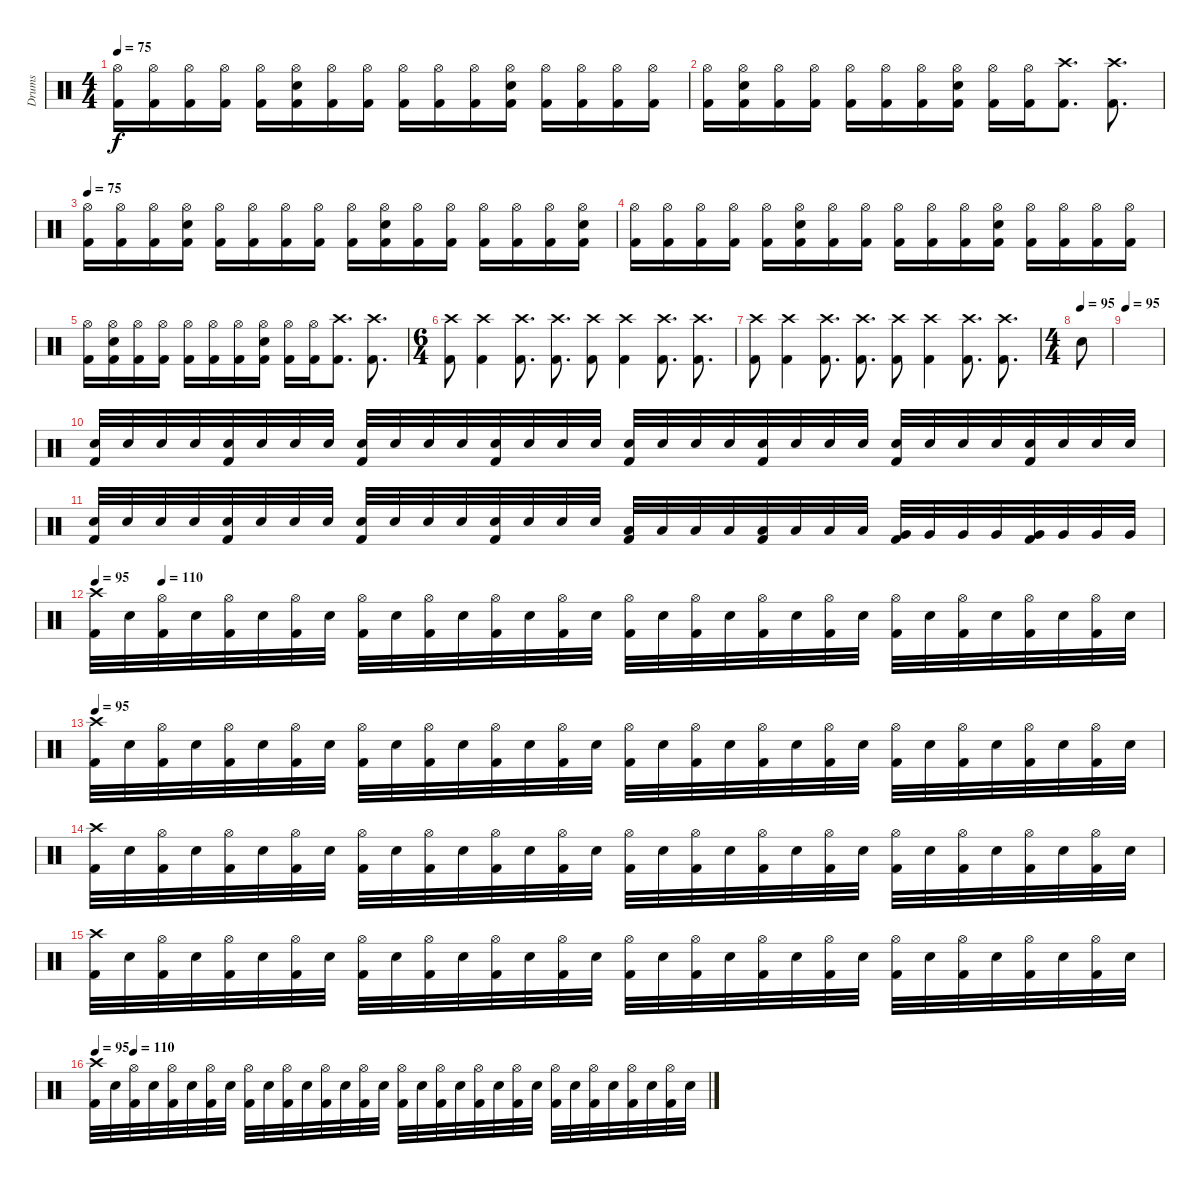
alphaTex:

\track ("Drums" "Drums") {instrument percussion}
\staff {score}
\articulation defaults
\ts (4 4)
\tempo 75
\clef neutral
\ks c
("Hi-Hat (open)" "Kick (hit) 2").16{dy f} ("Hi-Hat (open)" "Kick (hit) 2").16 ("Hi-Hat (open)" "Kick (hit) 2").16 ("Hi-Hat (open)" "Kick (hit) 2").16 ("Hi-Hat (open)" "Kick (hit) 2").16 ("Hi-Hat (open)" "Snare (hit) 2" "Kick (hit) 2").16 ("Hi-Hat (open)" "Kick (hit) 2").16 ("Hi-Hat (open)" "Kick (hit) 2").16 ("Hi-Hat (open)" "Kick (hit) 2").16 ("Hi-Hat (open)" "Kick (hit) 2").16 ("Hi-Hat (open)" "Kick (hit) 2").16 ("Hi-Hat (open)" "Snare (hit) 2" "Kick (hit) 2").16 ("Hi-Hat (open)" "Kick (hit) 2").16 ("Hi-Hat (open)" "Kick (hit) 2").16 ("Hi-Hat (open)" "Kick (hit) 2").16 ("Hi-Hat (open)" "Kick (hit) 2").16 |
("Hi-Hat (open)" "Kick (hit) 2").16 ("Hi-Hat (open)" "Snare (hit) 2" "Kick (hit) 2").16 ("Hi-Hat (open)" "Kick (hit) 2").16 ("Hi-Hat (open)" "Kick (hit) 2").16 ("Hi-Hat (open)" "Kick (hit) 2").16 ("Hi-Hat (open)" "Kick (hit) 2").16 ("Hi-Hat (open)" "Kick (hit) 2").16 ("Hi-Hat (open)" "Snare (hit) 2" "Kick (hit) 2").16 ("Hi-Hat (open)" "Kick (hit) 2").16 ("Hi-Hat (open)" "Kick (hit) 2").16 ("Crash high (hit)" "Kick (hit) 2").8{d} ("Crash high (hit)" "Kick (hit) 2").8{d} |
\tempo 75
("Hi-Hat (open)" "Kick (hit) 2").16 ("Hi-Hat (open)" "Kick (hit) 2").16 ("Hi-Hat (open)" "Kick (hit) 2").16 ("Hi-Hat (open)" "Snare (hit) 2" "Kick (hit) 2").16 ("Hi-Hat (open)" "Kick (hit) 2").16 ("Hi-Hat (open)" "Kick (hit) 2").16 ("Hi-Hat (open)" "Kick (hit) 2").16 ("Hi-Hat (open)" "Kick (hit) 2").16 ("Hi-Hat (open)" "Kick (hit) 2").16 ("Hi-Hat (open)" "Snare (hit) 2" "Kick (hit) 2").16 ("Hi-Hat (open)" "Kick (hit) 2").16 ("Hi-Hat (open)" "Kick (hit) 2").16 ("Hi-Hat (open)" "Kick (hit) 2").16 ("Hi-Hat (open)" "Kick (hit) 2").16 ("Hi-Hat (open)" "Kick (hit) 2").16 ("Hi-Hat (open)" "Snare (hit) 2" "Kick (hit) 2").16 |
("Hi-Hat (open)" "Kick (hit) 2").16 ("Hi-Hat (open)" "Kick (hit) 2").16 ("Hi-Hat (open)" "Kick (hit) 2").16 ("Hi-Hat (open)" "Kick (hit) 2").16 ("Hi-Hat (open)" "Kick (hit) 2").16 ("Hi-Hat (open)" "Snare (hit) 2" "Kick (hit) 2").16 ("Hi-Hat (open)" "Kick (hit) 2").16 ("Hi-Hat (open)" "Kick (hit) 2").16 ("Hi-Hat (open)" "Kick (hit) 2").16 ("Hi-Hat (open)" "Kick (hit) 2").16 ("Hi-Hat (open)" "Kick (hit) 2").16 ("Hi-Hat (open)" "Snare (hit) 2" "Kick (hit) 2").16 ("Hi-Hat (open)" "Kick (hit) 2").16 ("Hi-Hat (open)" "Kick (hit) 2").16 ("Hi-Hat (open)" "Kick (hit) 2").16 ("Hi-Hat (open)" "Kick (hit) 2").16 |
("Hi-Hat (open)" "Kick (hit) 2").16 ("Hi-Hat (open)" "Snare (hit) 2" "Kick (hit) 2").16 ("Hi-Hat (open)" "Kick (hit) 2").16 ("Hi-Hat (open)" "Kick (hit) 2").16 ("Hi-Hat (open)" "Kick (hit) 2").16 ("Hi-Hat (open)" "Kick (hit) 2").16 ("Hi-Hat (open)" "Kick (hit) 2").16 ("Hi-Hat (open)" "Snare (hit) 2" "Kick (hit) 2").16 ("Hi-Hat (open)" "Kick (hit) 2").16 ("Hi-Hat (open)" "Kick (hit) 2").16 ("Crash high (hit)" "Kick (hit) 2").8{d} ("Crash high (hit)" "Kick (hit) 2").8{d} |
\ts (6 4)
("Crash high (hit)" "Kick (hit) 2").8 ("Crash high (hit)" "Kick (hit) 2").4 ("Crash high (hit)" "Kick (hit) 2").8{d} ("Crash high (hit)" "Kick (hit) 2").8{d} ("Crash high (hit)" "Kick (hit) 2").8 ("Crash high (hit)" "Kick (hit) 2").4 ("Crash high (hit)" "Kick (hit) 2").8{d} ("Crash high (hit)" "Kick (hit) 2").8{d} |
("Crash high (hit)" "Kick (hit) 2").8 ("Crash high (hit)" "Kick (hit) 2").4 ("Crash high (hit)" "Kick (hit) 2").8{d} ("Crash high (hit)" "Kick (hit) 2").8{d} ("Crash high (hit)" "Kick (hit) 2").8 ("Crash high (hit)" "Kick (hit) 2").4 ("Crash high (hit)" "Kick (hit) 2").8{d} ("Crash high (hit)" "Kick (hit) 2").8{d} |
\ts (4 4)
\tempo (95)
"Electric Snare (hit)".8 |
\tempo 95
|
("Snare (hit) 2" "Kick (hit) 2").32 "Snare (hit) 2".32 "Snare (hit) 2".32 "Snare (hit) 2".32 ("Snare (hit) 2" "Kick (hit) 2").32 "Snare (hit) 2".32 "Snare (hit) 2".32 "Snare (hit) 2".32 ("Snare (hit) 2" "Kick (hit) 2").32 "Snare (hit) 2".32 "Snare (hit) 2".32 "Snare (hit) 2".32 ("Snare (hit) 2" "Kick (hit) 2").32 "Snare (hit) 2".32 "Snare (hit) 2".32 "Snare (hit) 2".32 ("Snare (hit) 2" "Kick (hit) 2").32 "Snare (hit) 2".32 "Snare (hit) 2".32 "Snare (hit) 2".32 ("Snare (hit) 2" "Kick (hit) 2").32 "Snare (hit) 2".32 "Snare (hit) 2".32 "Snare (hit) 2".32 ("Snare (hit) 2" "Kick (hit) 2").32 "Snare (hit) 2".32 "Snare (hit) 2".32 "Snare (hit) 2".32 ("Snare (hit) 2" "Kick (hit) 2").32 "Snare (hit) 2".32 "Snare (hit) 2".32 "Snare (hit) 2".32 |
("Snare (hit) 2" "Kick (hit) 2").32 "Snare (hit) 2".32 "Snare (hit) 2".32 "Snare (hit) 2".32 ("Snare (hit) 2" "Kick (hit) 2").32 "Snare (hit) 2".32 "Snare (hit) 2".32 "Snare (hit) 2".32 ("Snare (hit) 2" "Kick (hit) 2").32 "Snare (hit) 2".32 "Snare (hit) 2".32 "Snare (hit) 2".32 ("Snare (hit) 2" "Kick (hit) 2").32 "Snare (hit) 2".32 "Snare (hit) 2".32 "Snare (hit) 2".32 ("Low Floor Tom (hit)" "Kick (hit) 2").32 "Low Floor Tom (hit)".32 "Low Floor Tom (hit)".32 "Low Floor Tom (hit)".32 ("Low Floor Tom (hit)" "Kick (hit) 2").32 "Low Floor Tom (hit)".32 "Low Floor Tom (hit)".32 "Low Floor Tom (hit)".32 ("Very Low Tom (hit)" "Kick (hit) 2").32 "Very Low Tom (hit)".32 "Very Low Tom (hit)".32 "Very Low Tom (hit)".32 ("Very Low Tom (hit)" "Kick (hit) 2").32 "Very Low Tom (hit)".32 "Very Low Tom (hit)".32 "Very Low Tom (hit)".32 |
\tempo 95
\tempo (110 0.0625)
("Crash high (hit)" "Kick (hit) 2").32 "Snare (hit) 2".32 ("Hi-Hat (open)" "Kick (hit) 2").32 "Snare (hit) 2".32 ("Hi-Hat (open)" "Kick (hit) 2").32 "Snare (hit) 2".32 ("Hi-Hat (open)" "Kick (hit) 2").32 "Snare (hit) 2".32 ("Hi-Hat (open)" "Kick (hit) 2").32 "Snare (hit) 2".32 ("Hi-Hat (open)" "Kick (hit) 2").32 "Snare (hit) 2".32 ("Hi-Hat (open)" "Kick (hit) 2").32 "Snare (hit) 2".32 ("Hi-Hat (open)" "Kick (hit) 2").32 "Snare (hit) 2".32 ("Hi-Hat (open)" "Kick (hit) 2").32 "Snare (hit) 2".32 ("Hi-Hat (open)" "Kick (hit) 2").32 "Snare (hit) 2".32 ("Hi-Hat (open)" "Kick (hit) 2").32 "Snare (hit) 2".32 ("Hi-Hat (open)" "Kick (hit) 2").32 "Snare (hit) 2".32 ("Hi-Hat (open)" "Kick (hit) 2").32 "Snare (hit) 2".32 ("Hi-Hat (open)" "Kick (hit) 2").32 "Snare (hit) 2".32 ("Hi-Hat (open)" "Kick (hit) 2").32 "Snare (hit) 2".32 ("Hi-Hat (open)" "Kick (hit) 2").32 "Snare (hit) 2".32 |
\tempo 95
("Crash high (hit)" "Kick (hit) 2").32 "Snare (hit) 2".32 ("Hi-Hat (open)" "Kick (hit) 2").32 "Snare (hit) 2".32 ("Hi-Hat (open)" "Kick (hit) 2").32 "Snare (hit) 2".32 ("Hi-Hat (open)" "Kick (hit) 2").32 "Snare (hit) 2".32 ("Hi-Hat (open)" "Kick (hit) 2").32 "Snare (hit) 2".32 ("Hi-Hat (open)" "Kick (hit) 2").32 "Snare (hit) 2".32 ("Hi-Hat (open)" "Kick (hit) 2").32 "Snare (hit) 2".32 ("Hi-Hat (open)" "Kick (hit) 2").32 "Snare (hit) 2".32 ("Hi-Hat (open)" "Kick (hit) 2").32 "Snare (hit) 2".32 ("Hi-Hat (open)" "Kick (hit) 2").32 "Snare (hit) 2".32 ("Hi-Hat (open)" "Kick (hit) 2").32 "Snare (hit) 2".32 ("Hi-Hat (open)" "Kick (hit) 2").32 "Snare (hit) 2".32 ("Hi-Hat (open)" "Kick (hit) 2").32 "Snare (hit) 2".32 ("Hi-Hat (open)" "Kick (hit) 2").32 "Snare (hit) 2".32 ("Hi-Hat (open)" "Kick (hit) 2").32 "Snare (hit) 2".32 ("Hi-Hat (open)" "Kick (hit) 2").32 "Snare (hit) 2".32 |
("Crash high (hit)" "Kick (hit) 2").32 "Snare (hit) 2".32 ("Hi-Hat (open)" "Kick (hit) 2").32 "Snare (hit) 2".32 ("Hi-Hat (open)" "Kick (hit) 2").32 "Snare (hit) 2".32 ("Hi-Hat (open)" "Kick (hit) 2").32 "Snare (hit) 2".32 ("Hi-Hat (open)" "Kick (hit) 2").32 "Snare (hit) 2".32 ("Hi-Hat (open)" "Kick (hit) 2").32 "Snare (hit) 2".32 ("Hi-Hat (open)" "Kick (hit) 2").32 "Snare (hit) 2".32 ("Hi-Hat (open)" "Kick (hit) 2").32 "Snare (hit) 2".32 ("Hi-Hat (open)" "Kick (hit) 2").32 "Snare (hit) 2".32 ("Hi-Hat (open)" "Kick (hit) 2").32 "Snare (hit) 2".32 ("Hi-Hat (open)" "Kick (hit) 2").32 "Snare (hit) 2".32 ("Hi-Hat (open)" "Kick (hit) 2").32 "Snare (hit) 2".32 ("Hi-Hat (open)" "Kick (hit) 2").32 "Snare (hit) 2".32 ("Hi-Hat (open)" "Kick (hit) 2").32 "Snare (hit) 2".32 ("Hi-Hat (open)" "Kick (hit) 2").32 "Snare (hit) 2".32 ("Hi-Hat (open)" "Kick (hit) 2").32 "Snare (hit) 2".32 |
("Crash high (hit)" "Kick (hit) 2").32 "Snare (hit) 2".32 ("Hi-Hat (open)" "Kick (hit) 2").32 "Snare (hit) 2".32 ("Hi-Hat (open)" "Kick (hit) 2").32 "Snare (hit) 2".32 ("Hi-Hat (open)" "Kick (hit) 2").32 "Snare (hit) 2".32 ("Hi-Hat (open)" "Kick (hit) 2").32 "Snare (hit) 2".32 ("Hi-Hat (open)" "Kick (hit) 2").32 "Snare (hit) 2".32 ("Hi-Hat (open)" "Kick (hit) 2").32 "Snare (hit) 2".32 ("Hi-Hat (open)" "Kick (hit) 2").32 "Snare (hit) 2".32 ("Hi-Hat (open)" "Kick (hit) 2").32 "Snare (hit) 2".32 ("Hi-Hat (open)" "Kick (hit) 2").32 "Snare (hit) 2".32 ("Hi-Hat (open)" "Kick (hit) 2").32 "Snare (hit) 2".32 ("Hi-Hat (open)" "Kick (hit) 2").32 "Snare (hit) 2".32 ("Hi-Hat (open)" "Kick (hit) 2").32 "Snare (hit) 2".32 ("Hi-Hat (open)" "Kick (hit) 2").32 "Snare (hit) 2".32 ("Hi-Hat (open)" "Kick (hit) 2").32 "Snare (hit) 2".32 ("Hi-Hat (open)" "Kick (hit) 2").32 "Snare (hit) 2".32 |
\tempo 95
\tempo (110 0.0625)
("Crash high (hit)" "Kick (hit) 2").32 "Snare (hit) 2".32 ("Hi-Hat (open)" "Kick (hit) 2").32 "Snare (hit) 2".32 ("Hi-Hat (open)" "Kick (hit) 2").32 "Snare (hit) 2".32 ("Hi-Hat (open)" "Kick (hit) 2").32 "Snare (hit) 2".32 ("Hi-Hat (open)" "Kick (hit) 2").32 "Snare (hit) 2".32 ("Hi-Hat (open)" "Kick (hit) 2").32 "Snare (hit) 2".32 ("Hi-Hat (open)" "Kick (hit) 2").32 "Snare (hit) 2".32 ("Hi-Hat (open)" "Kick (hit) 2").32 "Snare (hit) 2".32 ("Hi-Hat (open)" "Kick (hit) 2").32 "Snare (hit) 2".32 ("Hi-Hat (open)" "Kick (hit) 2").32 "Snare (hit) 2".32 ("Hi-Hat (open)" "Kick (hit) 2").32 "Snare (hit) 2".32 ("Hi-Hat (open)" "Kick (hit) 2").32 "Snare (hit) 2".32 ("Hi-Hat (open)" "Kick (hit) 2").32 "Snare (hit) 2".32 ("Hi-Hat (open)" "Kick (hit) 2").32 "Snare (hit) 2".32 ("Hi-Hat (open)" "Kick (hit) 2").32 "Snare (hit) 2".32 ("Hi-Hat (open)" "Kick (hit) 2").32 "Snare (hit) 2".32
